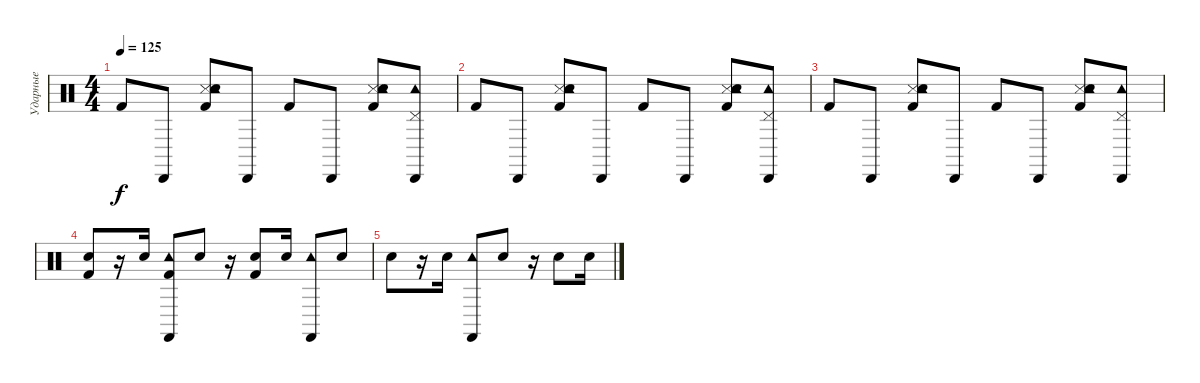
\track ("Ударные" "Ударные") {instrument percussion}
\staff {score}
\articulation defaults
\ts (4 4)
\tempo 125
\clef neutral
\ks c "Kick (hit) 2".8{dy f} "Cabasa (hit)".8
("Snare (side stick) 3" "Hand Clap (hit)" "Tambourine (hit)" "Kick (hit) 2").8 "Cabasa (hit)".8 "Kick (hit) 2".8 "Cabasa (hit)".8 ("Snare (side stick) 3" "Hand Clap (hit)" "Tambourine (hit)" "Kick (hit) 2").8 ("Pedal Hi-Hat (hit)" "Tambourine (hit)" "Cabasa (hit)").8 |
"Kick (hit) 2".8 "Cabasa (hit)".8 ("Snare (side stick) 3" "Hand Clap (hit)" "Tambourine (hit)" "Kick (hit) 2").8 "Cabasa (hit)".8 "Kick (hit) 2".8 "Cabasa (hit)".8 ("Snare (side stick) 3" "Hand Clap (hit)" "Tambourine (hit)" "Kick (hit) 2").8 ("Pedal Hi-Hat (hit)" "Tambourine (hit)" "Cabasa (hit)").8 |
"Kick (hit) 2".8 "Cabasa (hit)".8 ("Snare (side stick) 3" "Hand Clap (hit)" "Tambourine (hit)" "Kick (hit) 2").8 "Cabasa (hit)".8 "Kick (hit) 2".8 "Cabasa (hit)".8 ("Snare (side stick) 3" "Hand Clap (hit)" "Tambourine (hit)" "Kick (hit) 2").8 ("Pedal Hi-Hat (hit)" "Tambourine (hit)" "Cabasa (hit)").8 |
("Snare (hit) 2" "Kick (hit) 2").8 r.16 "Snare (hit) 2".16 ("Castanets (hit)" "Tambourine (hit)" "Kick (hit) 2").8 "Snare (hit) 2".8 r.16 ("Snare (hit) 2" "Kick (hit) 2").8 "Snare (hit) 2".16 ("Castanets (hit)" "Tambourine (hit)").8 "Snare (hit) 2".8 |
"Snare (hit) 2".8 r.16 "Snare (hit) 2".16 ("Castanets (hit)" "Tambourine (hit)").8 "Snare (hit) 2".8 r.16 "Snare (hit) 2".8 "Snare (hit) 2".16
